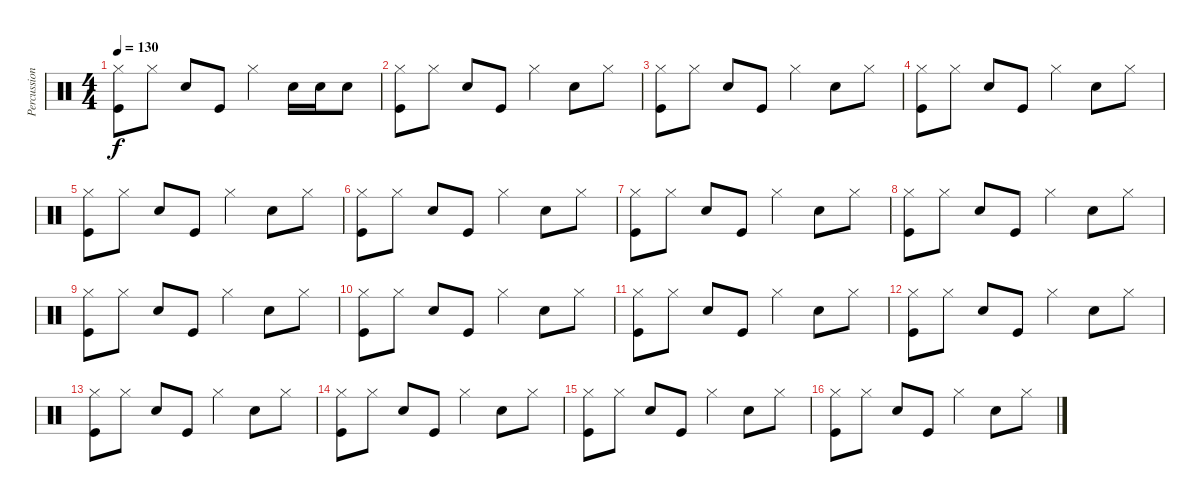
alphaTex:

\track ("Percussion" "Percussion") {instrument percussion}
\staff {score}
\articulation defaults
\ts (4 4)
\tempo 130
\clef neutral
\ks c
("Hi-Hat (closed)" "Kick (hit)").8{dy f} "Hi-Hat (closed)".8 "Snare (hit) 2".8 "Kick (hit)".8 "Hi-Hat (closed)".4 "Snare (hit) 2".16 "Snare (hit) 2".16 "Snare (hit) 2".8 |
("Hi-Hat (closed)" "Kick (hit)").8 "Hi-Hat (closed)".8 "Snare (hit) 2".8 "Kick (hit)".8 "Hi-Hat (closed)".4 "Snare (hit) 2".8 "Hi-Hat (closed)".8 |
("Hi-Hat (closed)" "Kick (hit)").8 "Hi-Hat (closed)".8 "Snare (hit) 2".8 "Kick (hit)".8 "Hi-Hat (closed)".4 "Snare (hit) 2".8 "Hi-Hat (closed)".8 |
("Hi-Hat (closed)" "Kick (hit)").8 "Hi-Hat (closed)".8 "Snare (hit) 2".8 "Kick (hit)".8 "Hi-Hat (closed)".4 "Snare (hit) 2".8 "Hi-Hat (closed)".8 |
("Hi-Hat (closed)" "Kick (hit)").8 "Hi-Hat (closed)".8 "Snare (hit) 2".8 "Kick (hit)".8 "Hi-Hat (closed)".4 "Snare (hit) 2".8 "Hi-Hat (closed)".8 |
("Hi-Hat (closed)" "Kick (hit)").8 "Hi-Hat (closed)".8 "Snare (hit) 2".8 "Kick (hit)".8 "Hi-Hat (closed)".4 "Snare (hit) 2".8 "Hi-Hat (closed)".8 |
("Hi-Hat (closed)" "Kick (hit)").8 "Hi-Hat (closed)".8 "Snare (hit) 2".8 "Kick (hit)".8 "Hi-Hat (closed)".4 "Snare (hit) 2".8 "Hi-Hat (closed)".8 |
("Hi-Hat (closed)" "Kick (hit)").8 "Hi-Hat (closed)".8 "Snare (hit) 2".8 "Kick (hit)".8 "Hi-Hat (closed)".4 "Snare (hit) 2".8 "Hi-Hat (closed)".8 |
("Hi-Hat (closed)" "Kick (hit)").8 "Hi-Hat (closed)".8 "Snare (hit) 2".8 "Kick (hit)".8 "Hi-Hat (closed)".4 "Snare (hit) 2".8 "Hi-Hat (closed)".8 |
("Hi-Hat (closed)" "Kick (hit)").8 "Hi-Hat (closed)".8 "Snare (hit) 2".8 "Kick (hit)".8 "Hi-Hat (closed)".4 "Snare (hit) 2".8 "Hi-Hat (closed)".8 |
("Hi-Hat (closed)" "Kick (hit)").8 "Hi-Hat (closed)".8 "Snare (hit) 2".8 "Kick (hit)".8 "Hi-Hat (closed)".4 "Snare (hit) 2".8 "Hi-Hat (closed)".8 |
("Hi-Hat (closed)" "Kick (hit)").8 "Hi-Hat (closed)".8 "Snare (hit) 2".8 "Kick (hit)".8 "Hi-Hat (closed)".4 "Snare (hit) 2".8 "Hi-Hat (closed)".8 |
("Hi-Hat (closed)" "Kick (hit)").8 "Hi-Hat (closed)".8 "Snare (hit) 2".8 "Kick (hit)".8 "Hi-Hat (closed)".4 "Snare (hit) 2".8 "Hi-Hat (closed)".8 |
("Hi-Hat (closed)" "Kick (hit)").8 "Hi-Hat (closed)".8 "Snare (hit) 2".8 "Kick (hit)".8 "Hi-Hat (closed)".4 "Snare (hit) 2".8 "Hi-Hat (closed)".8 |
("Hi-Hat (closed)" "Kick (hit)").8 "Hi-Hat (closed)".8 "Snare (hit) 2".8 "Kick (hit)".8 "Hi-Hat (closed)".4 "Snare (hit) 2".8 "Hi-Hat (closed)".8 |
("Hi-Hat (closed)" "Kick (hit)").8 "Hi-Hat (closed)".8 "Snare (hit) 2".8 "Kick (hit)".8 "Hi-Hat (closed)".4 "Snare (hit) 2".8 "Hi-Hat (closed)".8
